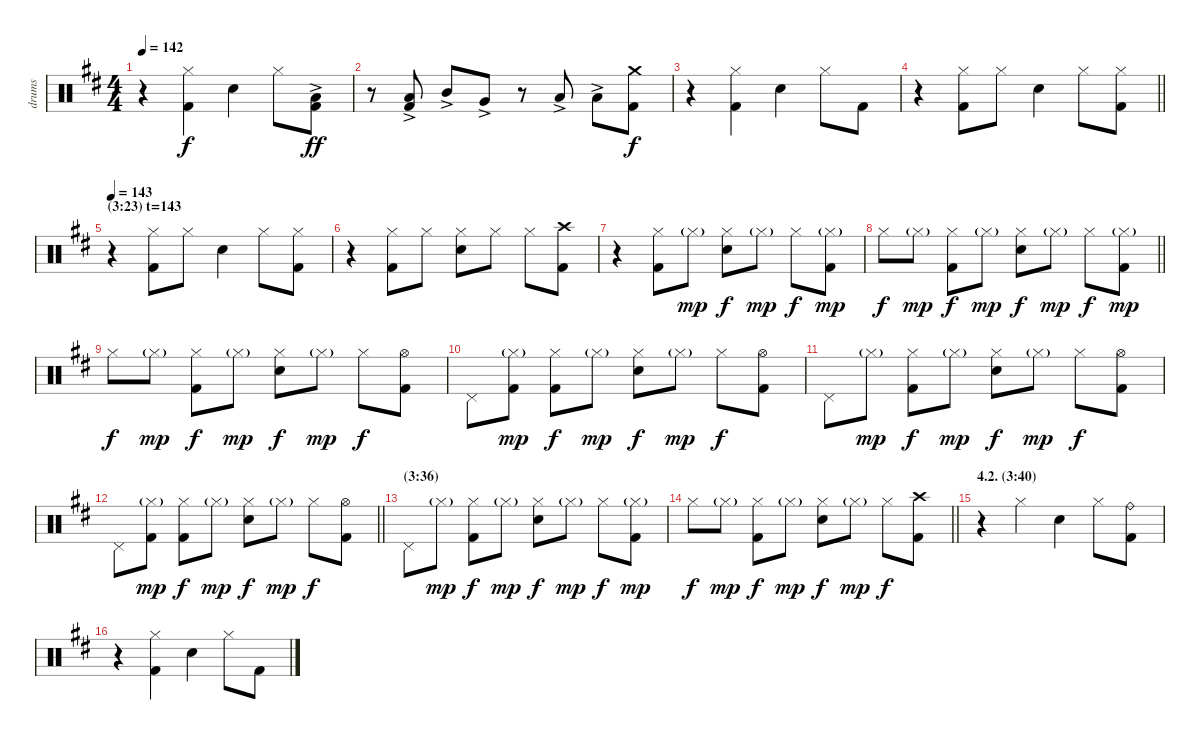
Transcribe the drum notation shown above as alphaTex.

\track ("drums" "drums") {instrument percussion}
\staff {score}
\articulation defaults
\ts (4 4)
\tempo 142
\clef neutral
\ks d
r.4{dy f} ("Hi-Hat (closed)" "Kick (hit) 2").4 "Electric Snare (hit)".4 "Hi-Hat (closed)".8 ("Low Floor Tom (hit)"{ac} "Kick (hit) 2").8{dy ff} |
r.8 ("Low Floor Tom (hit)"{ac} "Kick (hit) 2").8 "Mid Tom (hit)"{ac}.8 "Very Low Tom (hit)"{ac}.8 r.8 "Low Tom (hit)"{ac}.8 "Low Tom (hit)"{ac}.8 ("Crash medium (hit)" "Kick (hit) 2").8{dy f} |
r.4 ("Hi-Hat (closed)" "Kick (hit) 2").4 "Electric Snare (hit)".4 "Hi-Hat (closed)".8 "Kick (hit) 2".8 |
\barLineRight lightlight
r.4 ("Hi-Hat (closed)" "Kick (hit) 2").8 "Hi-Hat (closed)".8 "Electric Snare (hit)".4 "Hi-Hat (closed)".8 ("Hi-Hat (closed)" "Kick (hit) 2").8 |
\section ("" "(3:23) t=143")
\tempo 143
r.4 ("Hi-Hat (closed)" "Kick (hit) 2").8 "Hi-Hat (closed)".8 "Electric Snare (hit)".4 "Hi-Hat (closed)".8 ("Hi-Hat (closed)" "Kick (hit) 2").8 |
r.4 ("Hi-Hat (closed)" "Kick (hit) 2").8 "Hi-Hat (closed)".8 ("Hi-Hat (closed)" "Electric Snare (hit)").8 "Hi-Hat (closed)".8 "Hi-Hat (closed)".8 ("Crash high (hit)" "Kick (hit) 2").8 |
r.4 ("Hi-Hat (closed)" "Kick (hit) 2").8 "Hi-Hat (closed)"{g}.8{dy mp} ("Hi-Hat (closed)" "Electric Snare (hit)").8{dy f} "Hi-Hat (closed)"{g}.8{dy mp} "Hi-Hat (closed)".8{dy f} ("Hi-Hat (closed)"{g} "Kick (hit) 2").8{dy mp} |
\barLineRight lightlight "Hi-Hat (closed)".8{dy f} "Hi-Hat (closed)"{g}.8{dy mp}
("Hi-Hat (closed)" "Kick (hit) 2").8{dy f} "Hi-Hat (closed)"{g}.8{dy mp} ("Hi-Hat (closed)" "Electric Snare (hit)").8{dy f} "Hi-Hat (closed)"{g}.8{dy mp} "Hi-Hat (closed)".8{dy f} ("Hi-Hat (closed)"{g} "Kick (hit) 2").8{dy mp} |
"Hi-Hat (closed)".8{dy f} "Hi-Hat (closed)"{g}.8{dy mp} ("Hi-Hat (closed)" "Kick (hit) 2").8{dy f} "Hi-Hat (closed)"{g}.8{dy mp} ("Hi-Hat (closed)" "Electric Snare (hit)").8{dy f} "Hi-Hat (closed)"{g}.8{dy mp} "Hi-Hat (closed)".8{dy f} ("Hi-Hat (open)" "Kick (hit) 2").8 |
"Pedal Hi-Hat (hit)".8 ("Hi-Hat (closed)"{g} "Kick (hit) 2").8{dy mp} ("Hi-Hat (closed)" "Kick (hit) 2").8{dy f} "Hi-Hat (closed)"{g}.8{dy mp} ("Hi-Hat (closed)" "Electric Snare (hit)").8{dy f} "Hi-Hat (closed)"{g}.8{dy mp} "Hi-Hat (closed)".8{dy f} ("Hi-Hat (open)" "Kick (hit) 2").8 |
"Pedal Hi-Hat (hit)".8 "Hi-Hat (closed)"{g}.8{dy mp} ("Hi-Hat (closed)" "Kick (hit) 2").8{dy f} "Hi-Hat (closed)"{g}.8{dy mp} ("Hi-Hat (closed)" "Electric Snare (hit)").8{dy f} "Hi-Hat (closed)"{g}.8{dy mp} "Hi-Hat (closed)".8{dy f} ("Hi-Hat (open)" "Kick (hit) 2").8 |
\barLineRight lightlight "Pedal Hi-Hat (hit)".8
("Hi-Hat (closed)"{g} "Kick (hit) 2").8{dy mp} ("Hi-Hat (closed)" "Kick (hit) 2").8{dy f} "Hi-Hat (closed)"{g}.8{dy mp} ("Hi-Hat (closed)" "Electric Snare (hit)").8{dy f} "Hi-Hat (closed)"{g}.8{dy mp} "Hi-Hat (closed)".8{dy f} ("Hi-Hat (open)" "Kick (hit) 2").8 |
\section ("" "(3:36)")
"Pedal Hi-Hat (hit)".8 "Hi-Hat (closed)"{g}.8{dy mp} ("Hi-Hat (closed)" "Kick (hit) 2").8{dy f} "Hi-Hat (closed)"{g}.8{dy mp} ("Hi-Hat (closed)" "Electric Snare (hit)").8{dy f} "Hi-Hat (closed)"{g}.8{dy mp} "Hi-Hat (closed)".8{dy f} ("Hi-Hat (closed)"{g} "Kick (hit) 2").8{dy mp} |
\barLineRight lightlight "Hi-Hat (closed)".8{dy f} "Hi-Hat (closed)"{g}.8{dy mp}
("Hi-Hat (closed)" "Kick (hit) 2").8{dy f} "Hi-Hat (closed)"{g}.8{dy mp} ("Hi-Hat (closed)" "Electric Snare (hit)").8{dy f} "Hi-Hat (closed)"{g}.8{dy mp} "Hi-Hat (closed)".8{dy f} ("Crash high (hit)" "Kick (hit) 2").8 |
\section ("" "4.2. (3:40)")
r.4 "Hi-Hat (closed)".4 "Electric Snare (hit)".4 "Hi-Hat (closed)".8 ("Ride (bell)" "Kick (hit) 2").8 |
r.4 ("Hi-Hat (closed)" "Kick (hit) 2").4 "Electric Snare (hit)".4 "Hi-Hat (closed)".8 "Kick (hit) 2".8
